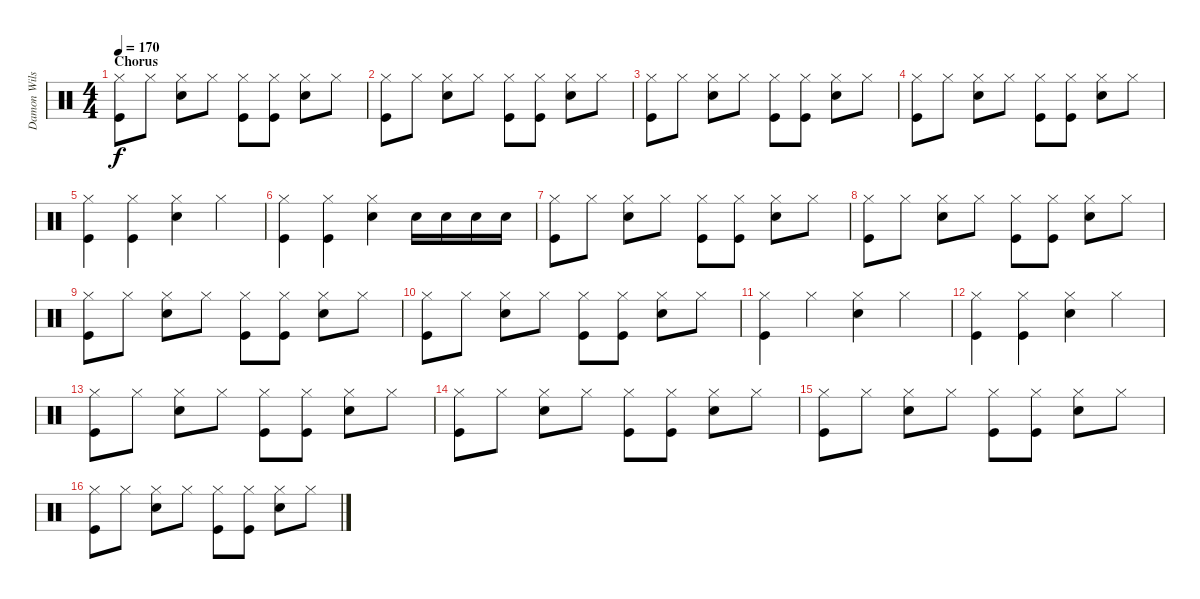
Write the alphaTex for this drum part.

\track ("Damon Wilson" "Damon Wils") {instrument percussion}
\staff {score}
\articulation defaults
\ts (4 4)
\section ("" "Chorus")
\tempo 170
\clef neutral
\ks c
("Hi-Hat (closed)" "Kick (hit)").8{dy f} "Hi-Hat (closed)".8 ("Hi-Hat (closed)" "Snare (hit) 2").8 "Hi-Hat (closed)".8 ("Hi-Hat (closed)" "Kick (hit)").8 ("Hi-Hat (closed)" "Kick (hit)").8 ("Hi-Hat (closed)" "Snare (hit) 2").8 "Hi-Hat (closed)".8 |
("Hi-Hat (closed)" "Kick (hit)").8 "Hi-Hat (closed)".8 ("Hi-Hat (closed)" "Snare (hit) 2").8 "Hi-Hat (closed)".8 ("Hi-Hat (closed)" "Kick (hit)").8 ("Hi-Hat (closed)" "Kick (hit)").8 ("Hi-Hat (closed)" "Snare (hit) 2").8 "Hi-Hat (closed)".8 |
("Hi-Hat (closed)" "Kick (hit)").8 "Hi-Hat (closed)".8 ("Hi-Hat (closed)" "Snare (hit) 2").8 "Hi-Hat (closed)".8 ("Hi-Hat (closed)" "Kick (hit)").8 ("Hi-Hat (closed)" "Kick (hit)").8 ("Hi-Hat (closed)" "Snare (hit) 2").8 "Hi-Hat (closed)".8 |
("Hi-Hat (closed)" "Kick (hit)").8 "Hi-Hat (closed)".8 ("Hi-Hat (closed)" "Snare (hit) 2").8 "Hi-Hat (closed)".8 ("Hi-Hat (closed)" "Kick (hit)").8 ("Hi-Hat (closed)" "Kick (hit)").8 ("Hi-Hat (closed)" "Snare (hit) 2").8 "Hi-Hat (closed)".8 |
("Hi-Hat (closed)" "Kick (hit)").4 ("Hi-Hat (closed)" "Kick (hit)").4 ("Hi-Hat (closed)" "Snare (hit) 2").4 "Hi-Hat (closed)".4 |
("Hi-Hat (closed)" "Kick (hit)").4 ("Hi-Hat (closed)" "Kick (hit)").4 ("Hi-Hat (closed)" "Snare (hit) 2").4 "Snare (hit) 2".16 "Snare (hit) 2".16 "Snare (hit) 2".16 "Snare (hit) 2".16 |
("Hi-Hat (closed)" "Kick (hit)").8 "Hi-Hat (closed)".8 ("Hi-Hat (closed)" "Snare (hit) 2").8 "Hi-Hat (closed)".8 ("Hi-Hat (closed)" "Kick (hit)").8 ("Hi-Hat (closed)" "Kick (hit)").8 ("Hi-Hat (closed)" "Snare (hit) 2").8 "Hi-Hat (closed)".8 |
("Hi-Hat (closed)" "Kick (hit)").8 "Hi-Hat (closed)".8 ("Hi-Hat (closed)" "Snare (hit) 2").8 "Hi-Hat (closed)".8 ("Hi-Hat (closed)" "Kick (hit)").8 ("Hi-Hat (closed)" "Kick (hit)").8 ("Hi-Hat (closed)" "Snare (hit) 2").8 "Hi-Hat (closed)".8 |
("Hi-Hat (closed)" "Kick (hit)").8 "Hi-Hat (closed)".8 ("Hi-Hat (closed)" "Snare (hit) 2").8 "Hi-Hat (closed)".8 ("Hi-Hat (closed)" "Kick (hit)").8 ("Hi-Hat (closed)" "Kick (hit)").8 ("Hi-Hat (closed)" "Snare (hit) 2").8 "Hi-Hat (closed)".8 |
("Hi-Hat (closed)" "Kick (hit)").8 "Hi-Hat (closed)".8 ("Hi-Hat (closed)" "Snare (hit) 2").8 "Hi-Hat (closed)".8 ("Hi-Hat (closed)" "Kick (hit)").8 ("Hi-Hat (closed)" "Kick (hit)").8 ("Hi-Hat (closed)" "Snare (hit) 2").8 "Hi-Hat (closed)".8 |
("Hi-Hat (closed)" "Kick (hit)").4 "Hi-Hat (closed)".4 ("Hi-Hat (closed)" "Snare (hit) 2").4 "Hi-Hat (closed)".4 |
("Hi-Hat (closed)" "Kick (hit)").4 ("Hi-Hat (closed)" "Kick (hit)").4 ("Hi-Hat (closed)" "Snare (hit) 2").4 "Hi-Hat (closed)".4 |
("Hi-Hat (closed)" "Kick (hit)").8 "Hi-Hat (closed)".8 ("Hi-Hat (closed)" "Snare (hit) 2").8 "Hi-Hat (closed)".8 ("Hi-Hat (closed)" "Kick (hit)").8 ("Hi-Hat (closed)" "Kick (hit)").8 ("Hi-Hat (closed)" "Snare (hit) 2").8 "Hi-Hat (closed)".8 |
("Hi-Hat (closed)" "Kick (hit)").8 "Hi-Hat (closed)".8 ("Hi-Hat (closed)" "Snare (hit) 2").8 "Hi-Hat (closed)".8 ("Hi-Hat (closed)" "Kick (hit)").8 ("Hi-Hat (closed)" "Kick (hit)").8 ("Hi-Hat (closed)" "Snare (hit) 2").8 "Hi-Hat (closed)".8 |
("Hi-Hat (closed)" "Kick (hit)").8 "Hi-Hat (closed)".8 ("Hi-Hat (closed)" "Snare (hit) 2").8 "Hi-Hat (closed)".8 ("Hi-Hat (closed)" "Kick (hit)").8 ("Hi-Hat (closed)" "Kick (hit)").8 ("Hi-Hat (closed)" "Snare (hit) 2").8 "Hi-Hat (closed)".8 |
("Hi-Hat (closed)" "Kick (hit)").8 "Hi-Hat (closed)".8 ("Hi-Hat (closed)" "Snare (hit) 2").8 "Hi-Hat (closed)".8 ("Hi-Hat (closed)" "Kick (hit)").8 ("Hi-Hat (closed)" "Kick (hit)").8 ("Hi-Hat (closed)" "Snare (hit) 2").8 "Hi-Hat (closed)".8
